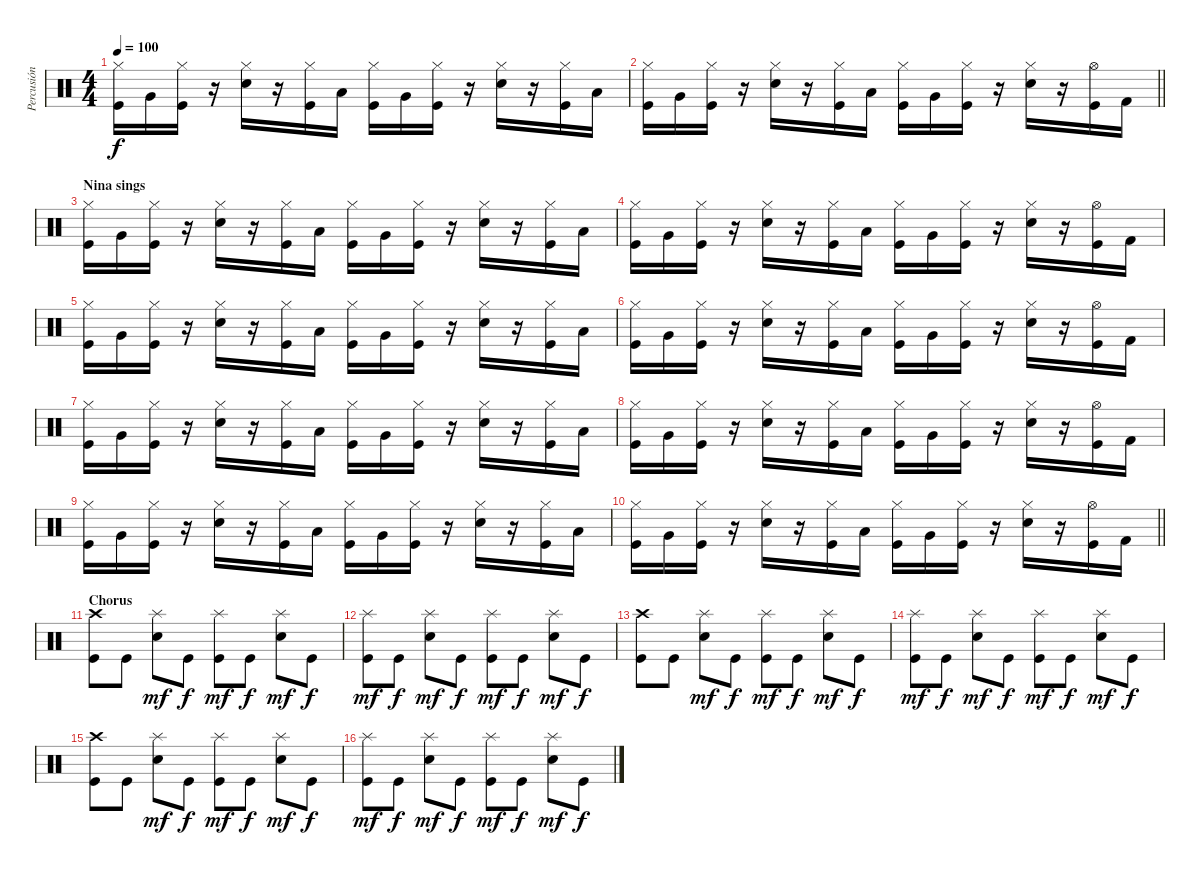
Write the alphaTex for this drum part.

\track ("Percusión" "Percusión") {instrument percussion}
\staff {score}
\articulation defaults
\ts (4 4)
\tempo 100
\clef neutral
\ks c
("Hi-Hat (closed)" "Kick (hit)").16{dy f} "Very Low Tom (hit)".16 ("Hi-Hat (closed)" "Kick (hit)").16 r.16 ("Hi-Hat (closed)" "Electric Snare (hit)").16 r.16 ("Hi-Hat (closed)" "Kick (hit)").16 "Low Tom (hit)".16 ("Hi-Hat (closed)" "Kick (hit)").16 "Very Low Tom (hit)".16 ("Hi-Hat (closed)" "Kick (hit)").16 r.16 ("Hi-Hat (closed)" "Electric Snare (hit)").16 r.16 ("Hi-Hat (closed)" "Kick (hit)").16 "Low Tom (hit)".16 |
\barLineRight lightlight
("Hi-Hat (closed)" "Kick (hit)").16 "Very Low Tom (hit)".16 ("Hi-Hat (closed)" "Kick (hit)").16 r.16 ("Hi-Hat (closed)" "Electric Snare (hit)").16 r.16 ("Hi-Hat (closed)" "Kick (hit)").16 "Low Tom (hit)".16 ("Hi-Hat (closed)" "Kick (hit)").16 "Very Low Tom (hit)".16 ("Hi-Hat (closed)" "Kick (hit)").16 r.16 ("Hi-Hat (closed)" "Electric Snare (hit)").16 r.16 ("Hi-Hat (open)" "Kick (hit)").16 "Kick (hit) 2".16 |
\section ("" "Nina sings")
("Hi-Hat (closed)" "Kick (hit)").16 "Very Low Tom (hit)".16 ("Hi-Hat (closed)" "Kick (hit)").16 r.16 ("Hi-Hat (closed)" "Electric Snare (hit)").16 r.16 ("Hi-Hat (closed)" "Kick (hit)").16 "Low Tom (hit)".16 ("Hi-Hat (closed)" "Kick (hit)").16 "Very Low Tom (hit)".16 ("Hi-Hat (closed)" "Kick (hit)").16 r.16 ("Hi-Hat (closed)" "Electric Snare (hit)").16 r.16 ("Hi-Hat (closed)" "Kick (hit)").16 "Low Tom (hit)".16 |
("Hi-Hat (closed)" "Kick (hit)").16 "Very Low Tom (hit)".16 ("Hi-Hat (closed)" "Kick (hit)").16 r.16 ("Hi-Hat (closed)" "Electric Snare (hit)").16 r.16 ("Hi-Hat (closed)" "Kick (hit)").16 "Low Tom (hit)".16 ("Hi-Hat (closed)" "Kick (hit)").16 "Very Low Tom (hit)".16 ("Hi-Hat (closed)" "Kick (hit)").16 r.16 ("Hi-Hat (closed)" "Electric Snare (hit)").16 r.16 ("Hi-Hat (open)" "Kick (hit)").16 "Kick (hit) 2".16 |
("Hi-Hat (closed)" "Kick (hit)").16 "Very Low Tom (hit)".16 ("Hi-Hat (closed)" "Kick (hit)").16 r.16 ("Hi-Hat (closed)" "Electric Snare (hit)").16 r.16 ("Hi-Hat (closed)" "Kick (hit)").16 "Low Tom (hit)".16 ("Hi-Hat (closed)" "Kick (hit)").16 "Very Low Tom (hit)".16 ("Hi-Hat (closed)" "Kick (hit)").16 r.16 ("Hi-Hat (closed)" "Electric Snare (hit)").16 r.16 ("Hi-Hat (closed)" "Kick (hit)").16 "Low Tom (hit)".16 |
("Hi-Hat (closed)" "Kick (hit)").16 "Very Low Tom (hit)".16 ("Hi-Hat (closed)" "Kick (hit)").16 r.16 ("Hi-Hat (closed)" "Electric Snare (hit)").16 r.16 ("Hi-Hat (closed)" "Kick (hit)").16 "Low Tom (hit)".16 ("Hi-Hat (closed)" "Kick (hit)").16 "Very Low Tom (hit)".16 ("Hi-Hat (closed)" "Kick (hit)").16 r.16 ("Hi-Hat (closed)" "Electric Snare (hit)").16 r.16 ("Hi-Hat (open)" "Kick (hit)").16 "Kick (hit) 2".16 |
("Hi-Hat (closed)" "Kick (hit)").16 "Very Low Tom (hit)".16 ("Hi-Hat (closed)" "Kick (hit)").16 r.16 ("Hi-Hat (closed)" "Electric Snare (hit)").16 r.16 ("Hi-Hat (closed)" "Kick (hit)").16 "Low Tom (hit)".16 ("Hi-Hat (closed)" "Kick (hit)").16 "Very Low Tom (hit)".16 ("Hi-Hat (closed)" "Kick (hit)").16 r.16 ("Hi-Hat (closed)" "Electric Snare (hit)").16 r.16 ("Hi-Hat (closed)" "Kick (hit)").16 "Low Tom (hit)".16 |
("Hi-Hat (closed)" "Kick (hit)").16 "Very Low Tom (hit)".16 ("Hi-Hat (closed)" "Kick (hit)").16 r.16 ("Hi-Hat (closed)" "Electric Snare (hit)").16 r.16 ("Hi-Hat (closed)" "Kick (hit)").16 "Low Tom (hit)".16 ("Hi-Hat (closed)" "Kick (hit)").16 "Very Low Tom (hit)".16 ("Hi-Hat (closed)" "Kick (hit)").16 r.16 ("Hi-Hat (closed)" "Electric Snare (hit)").16 r.16 ("Hi-Hat (open)" "Kick (hit)").16 "Kick (hit) 2".16 |
("Hi-Hat (closed)" "Kick (hit)").16 "Very Low Tom (hit)".16 ("Hi-Hat (closed)" "Kick (hit)").16 r.16 ("Hi-Hat (closed)" "Electric Snare (hit)").16 r.16 ("Hi-Hat (closed)" "Kick (hit)").16 "Low Tom (hit)".16 ("Hi-Hat (closed)" "Kick (hit)").16 "Very Low Tom (hit)".16 ("Hi-Hat (closed)" "Kick (hit)").16 r.16 ("Hi-Hat (closed)" "Electric Snare (hit)").16 r.16 ("Hi-Hat (closed)" "Kick (hit)").16 "Low Tom (hit)".16 |
\barLineRight lightlight
("Hi-Hat (closed)" "Kick (hit)").16 "Very Low Tom (hit)".16 ("Hi-Hat (closed)" "Kick (hit)").16 r.16 ("Hi-Hat (closed)" "Electric Snare (hit)").16 r.16 ("Hi-Hat (closed)" "Kick (hit)").16 "Low Tom (hit)".16 ("Hi-Hat (closed)" "Kick (hit)").16 "Very Low Tom (hit)".16 ("Hi-Hat (closed)" "Kick (hit)").16 r.16 ("Hi-Hat (closed)" "Electric Snare (hit)").16 r.16 ("Hi-Hat (open)" "Kick (hit)").16 "Kick (hit) 2".16 |
\section ("" "Chorus")
("Crash high (hit)" "Kick (hit)").8 "Kick (hit)".8 ("Splash (hit)" "Electric Snare (hit)").8{dy mf} "Kick (hit)".8{dy f} ("Splash (hit)" "Kick (hit)").8{dy mf} "Kick (hit)".8{dy f} ("Splash (hit)" "Electric Snare (hit)").8{dy mf} "Kick (hit)".8{dy f} |
("Splash (hit)" "Kick (hit)").8{dy mf} "Kick (hit)".8{dy f} ("Splash (hit)" "Electric Snare (hit)").8{dy mf} "Kick (hit)".8{dy f} ("Splash (hit)" "Kick (hit)").8{dy mf} "Kick (hit)".8{dy f} ("Splash (hit)" "Electric Snare (hit)").8{dy mf} "Kick (hit)".8{dy f} |
("Crash high (hit)" "Kick (hit)").8 "Kick (hit)".8 ("Splash (hit)" "Electric Snare (hit)").8{dy mf} "Kick (hit)".8{dy f} ("Splash (hit)" "Kick (hit)").8{dy mf} "Kick (hit)".8{dy f} ("Splash (hit)" "Electric Snare (hit)").8{dy mf} "Kick (hit)".8{dy f} |
("Splash (hit)" "Kick (hit)").8{dy mf} "Kick (hit)".8{dy f} ("Splash (hit)" "Electric Snare (hit)").8{dy mf} "Kick (hit)".8{dy f} ("Splash (hit)" "Kick (hit)").8{dy mf} "Kick (hit)".8{dy f} ("Splash (hit)" "Electric Snare (hit)").8{dy mf} "Kick (hit)".8{dy f} |
("Crash high (hit)" "Kick (hit)").8 "Kick (hit)".8 ("Splash (hit)" "Electric Snare (hit)").8{dy mf} "Kick (hit)".8{dy f} ("Splash (hit)" "Kick (hit)").8{dy mf} "Kick (hit)".8{dy f} ("Splash (hit)" "Electric Snare (hit)").8{dy mf} "Kick (hit)".8{dy f} |
("Splash (hit)" "Kick (hit)").8{dy mf} "Kick (hit)".8{dy f} ("Splash (hit)" "Electric Snare (hit)").8{dy mf} "Kick (hit)".8{dy f} ("Splash (hit)" "Kick (hit)").8{dy mf} "Kick (hit)".8{dy f} ("Splash (hit)" "Electric Snare (hit)").8{dy mf} "Kick (hit)".8{dy f}
